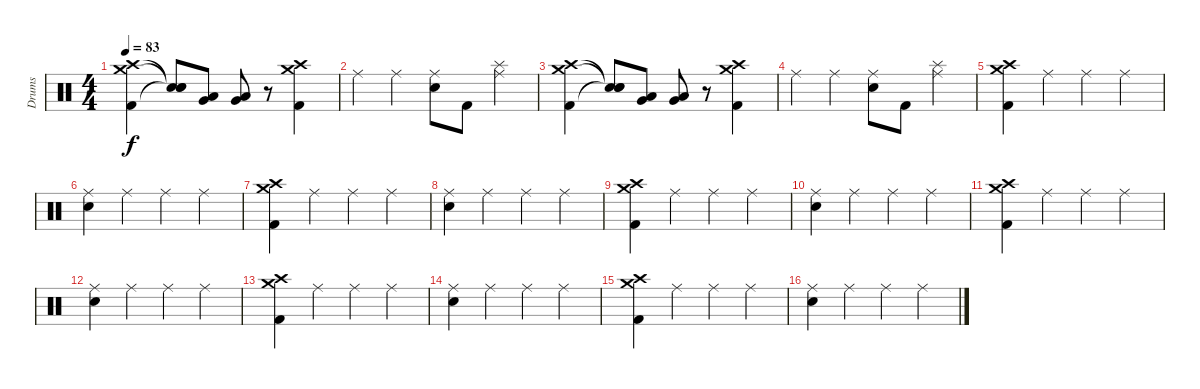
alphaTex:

\track ("Drums" "Drums") {instrument percussion}
\staff {score}
\articulation defaults
\ts (4 4)
\tempo 83
\clef neutral
\ks c
("Crash high (hit)" "Crash medium (hit)" "Kick (hit) 2").4{dy f} ("Snare (hit)"{t} "Snare (hit)"{t} "Snare (hit)"{t}).8 ("Low Tom (hit)" "Very Low Tom (hit)").8 ("Low Tom (hit)" "Very Low Tom (hit)").8 r.8 ("Crash high (hit)" "Crash medium (hit)" "Kick (hit) 2").4 |
"Ride (middle)".4 "Ride (middle)".4 ("Ride (middle)" "Snare (hit) 2").8 "Kick (hit) 2".8 ("Ride (middle)" "Splash (hit)").4 |
("Crash high (hit)" "Crash medium (hit)" "Kick (hit) 2").4 ("Snare (hit)"{t} "Snare (hit)"{t} "Snare (hit)"{t}).8 ("Low Tom (hit)" "Very Low Tom (hit)").8 ("Low Tom (hit)" "Very Low Tom (hit)").8 r.8 ("Crash high (hit)" "Crash medium (hit)" "Kick (hit) 2").4 |
"Ride (middle)".4 "Ride (middle)".4 ("Ride (middle)" "Snare (hit) 2").8 "Kick (hit) 2".8 ("Ride (middle)" "Splash (hit)").4 |
("Crash medium (hit)" "Crash high (hit)" "Kick (hit) 2").4 "Ride (middle)".4 "Ride (middle)".4 "Ride (middle)".4 |
("Ride (middle)" "Snare (hit) 2").4 "Ride (middle)".4 "Ride (middle)".4 "Ride (middle)".4 |
("Crash medium (hit)" "Crash high (hit)" "Kick (hit) 2").4 "Ride (middle)".4 "Ride (middle)".4 "Ride (middle)".4 |
("Ride (middle)" "Snare (hit) 2").4 "Ride (middle)".4 "Ride (middle)".4 "Ride (middle)".4 |
("Crash medium (hit)" "Crash high (hit)" "Kick (hit) 2").4 "Ride (middle)".4 "Ride (middle)".4 "Ride (middle)".4 |
("Ride (middle)" "Snare (hit) 2").4 "Ride (middle)".4 "Ride (middle)".4 "Ride (middle)".4 |
("Crash medium (hit)" "Crash high (hit)" "Kick (hit) 2").4 "Ride (middle)".4 "Ride (middle)".4 "Ride (middle)".4 |
("Ride (middle)" "Snare (hit) 2").4 "Ride (middle)".4 "Ride (middle)".4 "Ride (middle)".4 |
("Crash medium (hit)" "Crash high (hit)" "Kick (hit) 2").4 "Ride (middle)".4 "Ride (middle)".4 "Ride (middle)".4 |
("Ride (middle)" "Snare (hit) 2").4 "Ride (middle)".4 "Ride (middle)".4 "Ride (middle)".4 |
("Crash medium (hit)" "Crash high (hit)" "Kick (hit) 2").4 "Ride (middle)".4 "Ride (middle)".4 "Ride (middle)".4 |
("Ride (middle)" "Snare (hit) 2").4 "Ride (middle)".4 "Ride (middle)".4 "Ride (middle)".4
